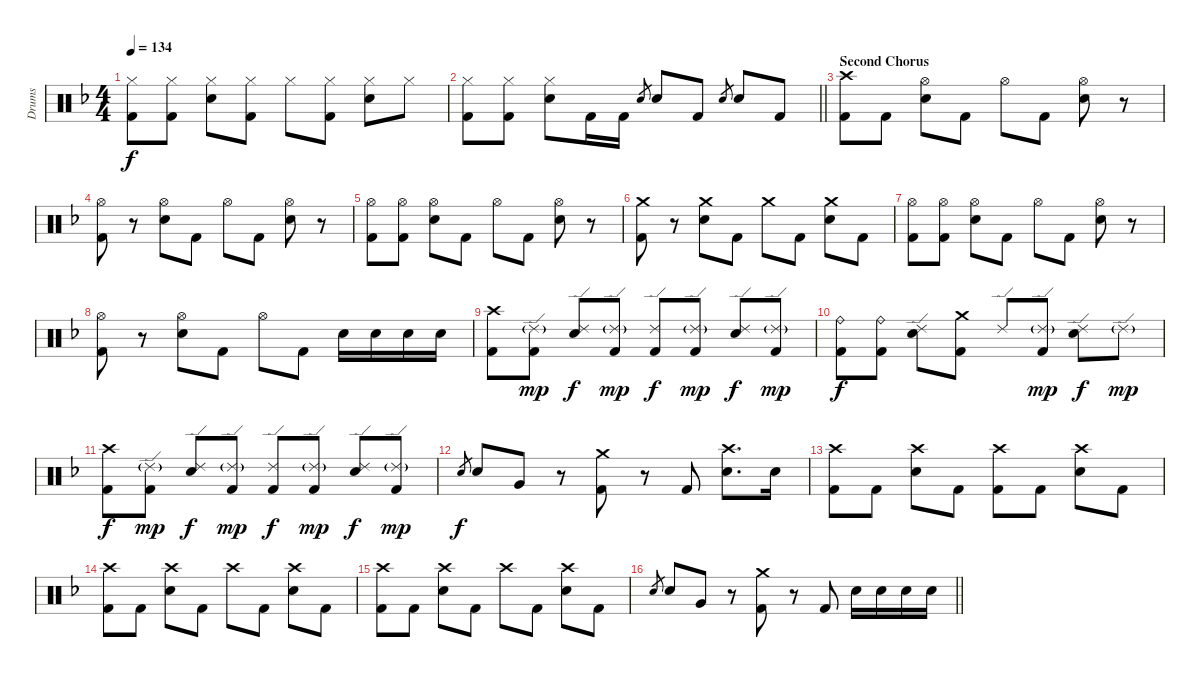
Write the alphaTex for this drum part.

\track ("Drums" "Drums") {instrument percussion}
\staff {score}
\articulation defaults
\ts (4 4)
\tempo 134
\clef neutral
\ks f
("Hi-Hat (closed)" "Kick (hit) 2").8{dy f} ("Hi-Hat (closed)" "Kick (hit) 2").8 ("Hi-Hat (closed)" "Electric Snare (hit)").8 ("Hi-Hat (closed)" "Kick (hit) 2").8 "Hi-Hat (closed)".8 ("Hi-Hat (closed)" "Kick (hit) 2").8 ("Hi-Hat (closed)" "Electric Snare (hit)").8 "Hi-Hat (closed)".8 |
\barLineRight lightlight
("Hi-Hat (closed)" "Kick (hit) 2").8 ("Hi-Hat (closed)" "Kick (hit) 2").8 ("Hi-Hat (closed)" "Electric Snare (hit)").8 "Kick (hit) 2".16 "Kick (hit) 2".16 "Electric Snare (hit)".8{gr} "Electric Snare (hit)".8 "Kick (hit) 2".8 "Electric Snare (hit)".8{gr} "Electric Snare (hit)".8 "Kick (hit) 2".8 |
\section ("" "Second Chorus")
("Crash high (hit)" "Kick (hit) 2").8 "Kick (hit) 2".8 ("Hi-Hat (open)" "Electric Snare (hit)").8 "Kick (hit) 2".8 "Hi-Hat (open)".8 "Kick (hit) 2".8 ("Hi-Hat (open)" "Electric Snare (hit)").8 r.8 |
("Hi-Hat (open)" "Kick (hit) 2").8 r.8 ("Hi-Hat (open)" "Electric Snare (hit)").8 "Kick (hit) 2".8 "Hi-Hat (open)".8 "Kick (hit) 2".8 ("Hi-Hat (open)" "Electric Snare (hit)").8 r.8 |
("Hi-Hat (open)" "Kick (hit) 2").8 ("Hi-Hat (open)" "Kick (hit) 2").8 ("Hi-Hat (open)" "Electric Snare (hit)").8 "Kick (hit) 2".8 "Hi-Hat (open)".8 "Kick (hit) 2".8 ("Hi-Hat (open)" "Electric Snare (hit)").8 r.8 |
("Crash medium (hit)" "Kick (hit) 2").8 r.8 ("Crash medium (hit)" "Electric Snare (hit)").8 "Kick (hit) 2".8 "Crash medium (hit)".8 "Kick (hit) 2".8 ("Crash medium (hit)" "Electric Snare (hit)").8 "Kick (hit) 2".8 |
("Hi-Hat (open)" "Kick (hit) 2").8 ("Hi-Hat (open)" "Kick (hit) 2").8 ("Hi-Hat (open)" "Electric Snare (hit)").8 "Kick (hit) 2".8 "Hi-Hat (open)".8 "Kick (hit) 2".8 ("Hi-Hat (open)" "Electric Snare (hit)").8 r.8 |
("Hi-Hat (open)" "Kick (hit) 2").8 r.8 ("Hi-Hat (open)" "Electric Snare (hit)").8 "Kick (hit) 2".8 "Hi-Hat (open)".8 "Kick (hit) 2".8 "Electric Snare (hit)".16 "Electric Snare (hit)".16 "Electric Snare (hit)".16 "Electric Snare (hit)".16 |
("Crash high (hit)" "Kick (hit) 2").8 ("Ride (edge) 2"{g} "Kick (hit) 2").8{dy mp} ("Ride (edge) 2" "Electric Snare (hit)").8{dy f} ("Ride (edge) 2"{g} "Kick (hit) 2").8{dy mp} ("Ride (edge) 2" "Kick (hit) 2").8{dy f} ("Ride (edge) 2"{g} "Kick (hit) 2").8{dy mp} ("Ride (edge) 2" "Electric Snare (hit)").8{dy f} ("Ride (edge) 2"{g} "Kick (hit) 2").8{dy mp} |
("Ride (bell)" "Kick (hit) 2").8{dy f} ("Ride (bell)" "Kick (hit) 2").8 ("Ride (edge) 2" "Electric Snare (hit)").8 ("Crash medium (hit)" "Kick (hit) 2").8 "Ride (edge) 2".8 ("Ride (edge) 2"{g} "Kick (hit) 2").8{dy mp} ("Ride (edge) 2" "Electric Snare (hit)").8{dy f} "Ride (edge) 2"{g}.8{dy mp} |
("Crash high (hit)" "Kick (hit) 2").8{dy f} ("Ride (edge) 2"{g} "Kick (hit) 2").8{dy mp} ("Ride (edge) 2" "Electric Snare (hit)").8{dy f} ("Ride (edge) 2"{g} "Kick (hit) 2").8{dy mp} ("Ride (edge) 2" "Kick (hit) 2").8{dy f} ("Ride (edge) 2"{g} "Kick (hit) 2").8{dy mp} ("Ride (edge) 2" "Electric Snare (hit)").8{dy f} ("Ride (edge) 2"{g} "Kick (hit) 2").8{dy mp} |
"Electric Snare (hit)".8{gr dy f} "Electric Snare (hit)".8 "Very Low Tom (hit)".8 r.8 ("Crash medium (hit)" "Kick (hit) 2").8 r.8 "Kick (hit) 2".8 ("Crash high (hit)" "Electric Snare (hit)").8{d} "Electric Snare (hit)".16 |
("Crash high (hit)" "Kick (hit) 2").8 "Kick (hit) 2".8 ("Crash high (hit)" "Electric Snare (hit)").8 "Kick (hit) 2".8 ("Crash high (hit)" "Kick (hit) 2").8 "Kick (hit) 2".8 ("Crash high (hit)" "Electric Snare (hit)").8 "Kick (hit) 2".8 |
("Crash high (hit)" "Kick (hit) 2").8 "Kick (hit) 2".8 ("Crash high (hit)" "Electric Snare (hit)").8 "Kick (hit) 2".8 "Crash high (hit)".8 "Kick (hit) 2".8 ("Crash high (hit)" "Electric Snare (hit)").8 "Kick (hit) 2".8 |
("Crash high (hit)" "Kick (hit) 2").8 "Kick (hit) 2".8 ("Crash high (hit)" "Electric Snare (hit)").8 "Kick (hit) 2".8 "Crash high (hit)".8 "Kick (hit) 2".8 ("Crash high (hit)" "Electric Snare (hit)").8 "Kick (hit) 2".8 |
\barLineRight lightlight "Electric Snare (hit)".8{gr} "Electric Snare (hit)".8 "Very Low Tom (hit)".8
r.8 ("Crash medium (hit)" "Kick (hit) 2").8 r.8 "Kick (hit) 2".8 "Electric Snare (hit)".16 "Electric Snare (hit)".16 "Electric Snare (hit)".16 "Electric Snare (hit)".16
